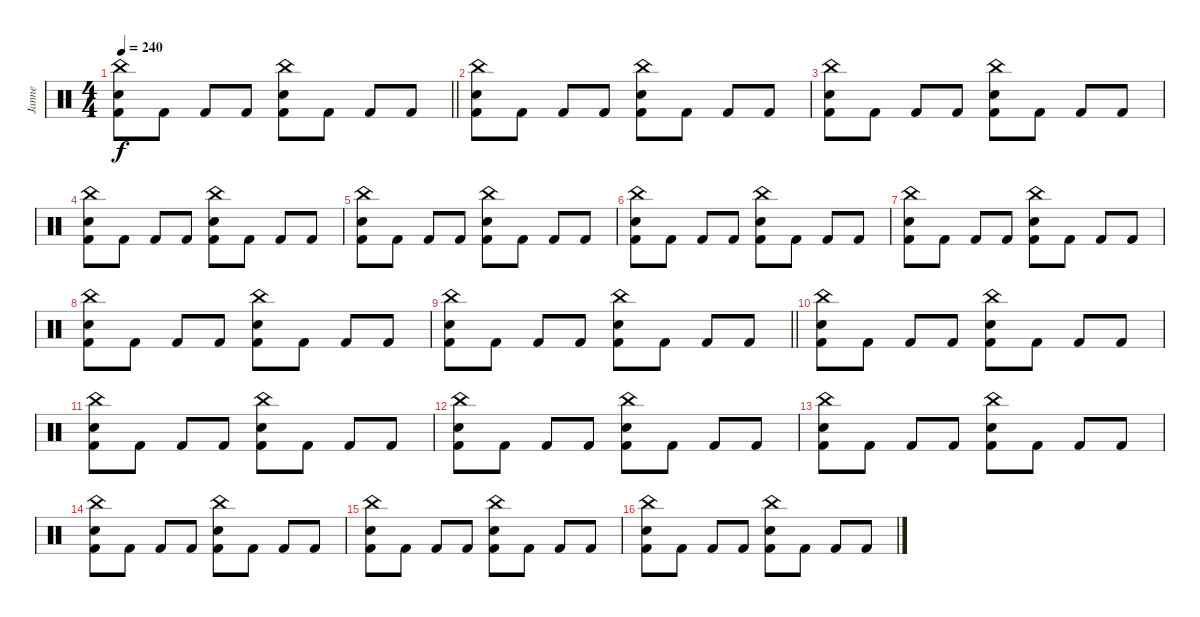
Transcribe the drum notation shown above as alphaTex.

\track ("Janne" "Janne") {instrument percussion}
\staff {score}
\articulation defaults
\ts (4 4)
\tempo 240
\clef neutral
\barLineRight lightlight
\ks c
("China (hit)" "Electric Snare (hit)" "Kick (hit) 2").8{dy f} "Kick (hit) 2".8 "Kick (hit) 2".8 "Kick (hit) 2".8 ("China (hit)" "Electric Snare (hit)" "Kick (hit) 2").8 "Kick (hit) 2".8 "Kick (hit) 2".8 "Kick (hit) 2".8 |
("China (hit)" "Electric Snare (hit)" "Kick (hit) 2").8 "Kick (hit) 2".8 "Kick (hit) 2".8 "Kick (hit) 2".8 ("China (hit)" "Electric Snare (hit)" "Kick (hit) 2").8 "Kick (hit) 2".8 "Kick (hit) 2".8 "Kick (hit) 2".8 |
("China (hit)" "Electric Snare (hit)" "Kick (hit) 2").8 "Kick (hit) 2".8 "Kick (hit) 2".8 "Kick (hit) 2".8 ("China (hit)" "Electric Snare (hit)" "Kick (hit) 2").8 "Kick (hit) 2".8 "Kick (hit) 2".8 "Kick (hit) 2".8 |
("China (hit)" "Electric Snare (hit)" "Kick (hit) 2").8 "Kick (hit) 2".8 "Kick (hit) 2".8 "Kick (hit) 2".8 ("China (hit)" "Electric Snare (hit)" "Kick (hit) 2").8 "Kick (hit) 2".8 "Kick (hit) 2".8 "Kick (hit) 2".8 |
("China (hit)" "Electric Snare (hit)" "Kick (hit) 2").8 "Kick (hit) 2".8 "Kick (hit) 2".8 "Kick (hit) 2".8 ("China (hit)" "Electric Snare (hit)" "Kick (hit) 2").8 "Kick (hit) 2".8 "Kick (hit) 2".8 "Kick (hit) 2".8 |
("China (hit)" "Electric Snare (hit)" "Kick (hit) 2").8 "Kick (hit) 2".8 "Kick (hit) 2".8 "Kick (hit) 2".8 ("China (hit)" "Electric Snare (hit)" "Kick (hit) 2").8 "Kick (hit) 2".8 "Kick (hit) 2".8 "Kick (hit) 2".8 |
("China (hit)" "Electric Snare (hit)" "Kick (hit) 2").8 "Kick (hit) 2".8 "Kick (hit) 2".8 "Kick (hit) 2".8 ("China (hit)" "Electric Snare (hit)" "Kick (hit) 2").8 "Kick (hit) 2".8 "Kick (hit) 2".8 "Kick (hit) 2".8 |
("China (hit)" "Electric Snare (hit)" "Kick (hit) 2").8 "Kick (hit) 2".8 "Kick (hit) 2".8 "Kick (hit) 2".8 ("China (hit)" "Electric Snare (hit)" "Kick (hit) 2").8 "Kick (hit) 2".8 "Kick (hit) 2".8 "Kick (hit) 2".8 |
\barLineRight lightlight
("China (hit)" "Electric Snare (hit)" "Kick (hit) 2").8 "Kick (hit) 2".8 "Kick (hit) 2".8 "Kick (hit) 2".8 ("China (hit)" "Electric Snare (hit)" "Kick (hit) 2").8 "Kick (hit) 2".8 "Kick (hit) 2".8 "Kick (hit) 2".8 |
("China (hit)" "Electric Snare (hit)" "Kick (hit) 2").8 "Kick (hit) 2".8 "Kick (hit) 2".8 "Kick (hit) 2".8 ("China (hit)" "Electric Snare (hit)" "Kick (hit) 2").8 "Kick (hit) 2".8 "Kick (hit) 2".8 "Kick (hit) 2".8 |
("China (hit)" "Electric Snare (hit)" "Kick (hit) 2").8 "Kick (hit) 2".8 "Kick (hit) 2".8 "Kick (hit) 2".8 ("China (hit)" "Electric Snare (hit)" "Kick (hit) 2").8 "Kick (hit) 2".8 "Kick (hit) 2".8 "Kick (hit) 2".8 |
("China (hit)" "Electric Snare (hit)" "Kick (hit) 2").8 "Kick (hit) 2".8 "Kick (hit) 2".8 "Kick (hit) 2".8 ("China (hit)" "Electric Snare (hit)" "Kick (hit) 2").8 "Kick (hit) 2".8 "Kick (hit) 2".8 "Kick (hit) 2".8 |
("China (hit)" "Electric Snare (hit)" "Kick (hit) 2").8 "Kick (hit) 2".8 "Kick (hit) 2".8 "Kick (hit) 2".8 ("China (hit)" "Electric Snare (hit)" "Kick (hit) 2").8 "Kick (hit) 2".8 "Kick (hit) 2".8 "Kick (hit) 2".8 |
("China (hit)" "Electric Snare (hit)" "Kick (hit) 2").8 "Kick (hit) 2".8 "Kick (hit) 2".8 "Kick (hit) 2".8 ("China (hit)" "Electric Snare (hit)" "Kick (hit) 2").8 "Kick (hit) 2".8 "Kick (hit) 2".8 "Kick (hit) 2".8 |
("China (hit)" "Electric Snare (hit)" "Kick (hit) 2").8 "Kick (hit) 2".8 "Kick (hit) 2".8 "Kick (hit) 2".8 ("China (hit)" "Electric Snare (hit)" "Kick (hit) 2").8 "Kick (hit) 2".8 "Kick (hit) 2".8 "Kick (hit) 2".8 |
("China (hit)" "Electric Snare (hit)" "Kick (hit) 2").8 "Kick (hit) 2".8 "Kick (hit) 2".8 "Kick (hit) 2".8 ("China (hit)" "Electric Snare (hit)" "Kick (hit) 2").8 "Kick (hit) 2".8 "Kick (hit) 2".8 "Kick (hit) 2".8
